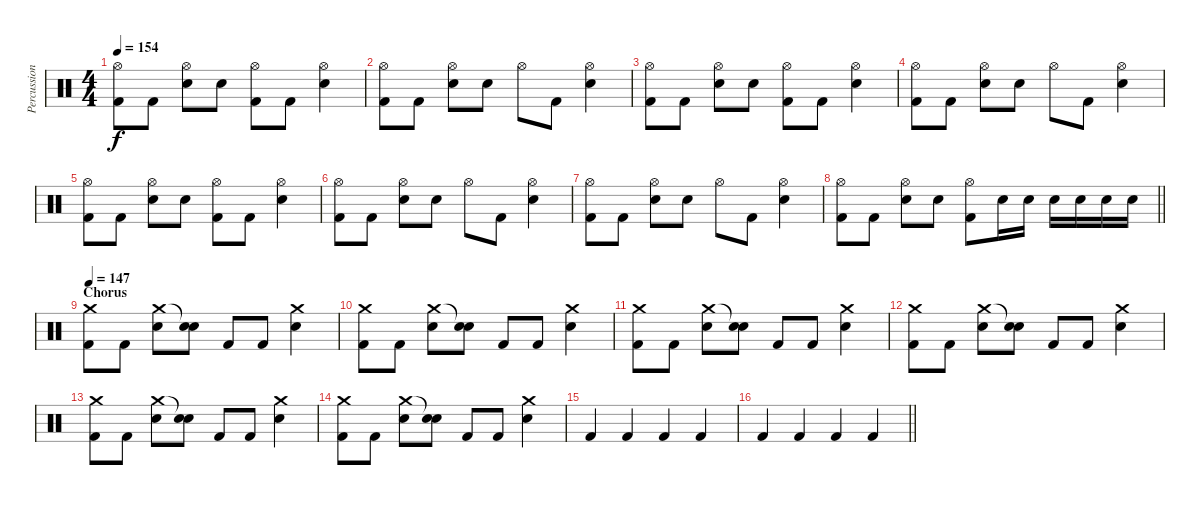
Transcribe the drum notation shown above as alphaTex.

\track ("Percussion" "Percussion") {instrument percussion}
\staff {score}
\articulation defaults
\ts (4 4)
\tempo 154
\clef neutral
\ks c
("Hi-Hat (open)" "Kick (hit) 2").8{dy f} "Kick (hit) 2".8 ("Hi-Hat (open)" "Electric Snare (hit)").8 "Electric Snare (hit)".8 ("Hi-Hat (open)" "Kick (hit) 2").8 "Kick (hit) 2".8 ("Hi-Hat (open)" "Electric Snare (hit)").4 |
("Hi-Hat (open)" "Kick (hit) 2").8 "Kick (hit) 2".8 ("Hi-Hat (open)" "Electric Snare (hit)").8 "Electric Snare (hit)".8 "Hi-Hat (open)".8 "Kick (hit) 2".8 ("Hi-Hat (open)" "Electric Snare (hit)").4 |
("Hi-Hat (open)" "Kick (hit) 2").8 "Kick (hit) 2".8 ("Hi-Hat (open)" "Electric Snare (hit)").8 "Electric Snare (hit)".8 ("Hi-Hat (open)" "Kick (hit) 2").8 "Kick (hit) 2".8 ("Hi-Hat (open)" "Electric Snare (hit)").4 |
("Hi-Hat (open)" "Kick (hit) 2").8 "Kick (hit) 2".8 ("Hi-Hat (open)" "Electric Snare (hit)").8 "Electric Snare (hit)".8 "Hi-Hat (open)".8 "Kick (hit) 2".8 ("Hi-Hat (open)" "Electric Snare (hit)").4 |
("Hi-Hat (open)" "Kick (hit) 2").8 "Kick (hit) 2".8 ("Hi-Hat (open)" "Electric Snare (hit)").8 "Electric Snare (hit)".8 ("Hi-Hat (open)" "Kick (hit) 2").8 "Kick (hit) 2".8 ("Hi-Hat (open)" "Electric Snare (hit)").4 |
("Hi-Hat (open)" "Kick (hit) 2").8 "Kick (hit) 2".8 ("Hi-Hat (open)" "Electric Snare (hit)").8 "Electric Snare (hit)".8 "Hi-Hat (open)".8 "Kick (hit) 2".8 ("Hi-Hat (open)" "Electric Snare (hit)").4 |
("Hi-Hat (open)" "Kick (hit) 2").8 "Kick (hit) 2".8 ("Hi-Hat (open)" "Electric Snare (hit)").8 "Electric Snare (hit)".8 "Hi-Hat (open)".8 "Kick (hit) 2".8 ("Hi-Hat (open)" "Electric Snare (hit)").4 |
\barLineRight lightlight
("Hi-Hat (open)" "Kick (hit) 2").8 "Kick (hit) 2".8 ("Hi-Hat (open)" "Electric Snare (hit)").8 "Electric Snare (hit)".8 ("Hi-Hat (open)" "Kick (hit) 2").8 "Electric Snare (hit)".16 "Electric Snare (hit)".16 "Electric Snare (hit)".16 "Electric Snare (hit)".16 "Electric Snare (hit)".16 "Electric Snare (hit)".16 |
\section ("" "Chorus")
\tempo 147
("Crash medium (hit)" "Kick (hit) 2").8 "Kick (hit) 2".8 ("Crash medium (hit)" "Electric Snare (hit)").8 ("Snare (hit)"{t} "Electric Snare (hit)").8 "Kick (hit) 2".8 "Kick (hit) 2".8 ("Crash medium (hit)" "Electric Snare (hit)").4 |
("Crash medium (hit)" "Kick (hit) 2").8 "Kick (hit) 2".8 ("Crash medium (hit)" "Electric Snare (hit)").8 ("Snare (hit)"{t} "Electric Snare (hit)").8 "Kick (hit) 2".8 "Kick (hit) 2".8 ("Crash medium (hit)" "Electric Snare (hit)").4 |
("Crash medium (hit)" "Kick (hit) 2").8 "Kick (hit) 2".8 ("Crash medium (hit)" "Electric Snare (hit)").8 ("Snare (hit)"{t} "Electric Snare (hit)").8 "Kick (hit) 2".8 "Kick (hit) 2".8 ("Crash medium (hit)" "Electric Snare (hit)").4 |
("Crash medium (hit)" "Kick (hit) 2").8 "Kick (hit) 2".8 ("Crash medium (hit)" "Electric Snare (hit)").8 ("Snare (hit)"{t} "Electric Snare (hit)").8 "Kick (hit) 2".8 "Kick (hit) 2".8 ("Crash medium (hit)" "Electric Snare (hit)").4 |
("Crash medium (hit)" "Kick (hit) 2").8 "Kick (hit) 2".8 ("Crash medium (hit)" "Electric Snare (hit)").8 ("Snare (hit)"{t} "Electric Snare (hit)").8 "Kick (hit) 2".8 "Kick (hit) 2".8 ("Crash medium (hit)" "Electric Snare (hit)").4 |
("Crash medium (hit)" "Kick (hit) 2").8 "Kick (hit) 2".8 ("Crash medium (hit)" "Electric Snare (hit)").8 ("Snare (hit)"{t} "Electric Snare (hit)").8 "Kick (hit) 2".8 "Kick (hit) 2".8 ("Crash medium (hit)" "Electric Snare (hit)").4 |
"Kick (hit) 2".4 "Kick (hit) 2".4 "Kick (hit) 2".4 "Kick (hit) 2".4 |
\barLineRight lightlight "Kick (hit) 2".4 "Kick (hit) 2".4 "Kick (hit) 2".4 "Kick (hit) 2".4
